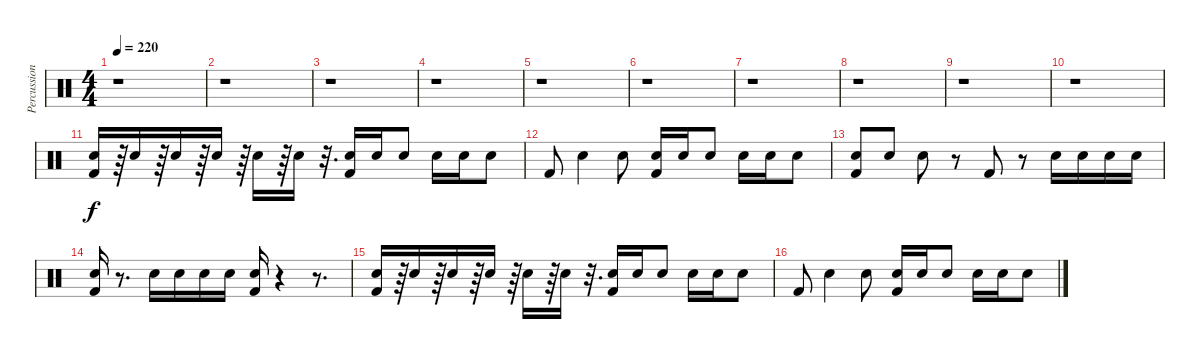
\track ("Percussion (Dan Wilding)" "Percussion") {instrument percussion}
\staff {score}
\articulation defaults
\ts (4 4)
\tempo 220
\clef neutral
\ks c
r.1{dy f} |
r.1 |
r.1 |
r.1 |
r.1 |
r.1 |
r.1 |
r.1 |
r.1 |
r.1 |
("Electric Snare (hit)" "Kick (hit) 2").16 r.64 "Electric Snare (hit)".16 r.64 "Electric Snare (hit)".16 r.64 "Electric Snare (hit)".16 r.64 "Electric Snare (hit)".16 r.64 "Electric Snare (hit)".16 r.32{d} ("Electric Snare (hit)" "Kick (hit) 2").16 "Electric Snare (hit)".16 "Electric Snare (hit)".8 "Electric Snare (hit)".16 "Electric Snare (hit)".16 "Electric Snare (hit)".8 |
"Kick (hit) 2".8 "Electric Snare (hit)".4 "Electric Snare (hit)".8 ("Electric Snare (hit)" "Kick (hit) 2").16 "Electric Snare (hit)".16 "Electric Snare (hit)".8 "Electric Snare (hit)".16 "Electric Snare (hit)".16 "Electric Snare (hit)".8 |
("Electric Snare (hit)" "Kick (hit) 2").8 "Electric Snare (hit)".8 "Electric Snare (hit)".8 r.8 "Kick (hit) 2".8 r.8 "Electric Snare (hit)".16 "Electric Snare (hit)".16 "Electric Snare (hit)".16 "Electric Snare (hit)".16 |
("Electric Snare (hit)" "Kick (hit) 2").16 r.8{d} "Electric Snare (hit)".16 "Electric Snare (hit)".16 "Electric Snare (hit)".16 "Electric Snare (hit)".16 ("Electric Snare (hit)" "Kick (hit) 2").16 r.4 r.8{d} |
("Electric Snare (hit)" "Kick (hit) 2").16 r.64 "Electric Snare (hit)".16 r.64 "Electric Snare (hit)".16 r.64 "Electric Snare (hit)".16 r.64 "Electric Snare (hit)".16 r.64 "Electric Snare (hit)".16 r.32{d} ("Electric Snare (hit)" "Kick (hit) 2").16 "Electric Snare (hit)".16 "Electric Snare (hit)".8 "Electric Snare (hit)".16 "Electric Snare (hit)".16 "Electric Snare (hit)".8 |
"Kick (hit) 2".8 "Electric Snare (hit)".4 "Electric Snare (hit)".8 ("Electric Snare (hit)" "Kick (hit) 2").16 "Electric Snare (hit)".16 "Electric Snare (hit)".8 "Electric Snare (hit)".16 "Electric Snare (hit)".16 "Electric Snare (hit)".8
